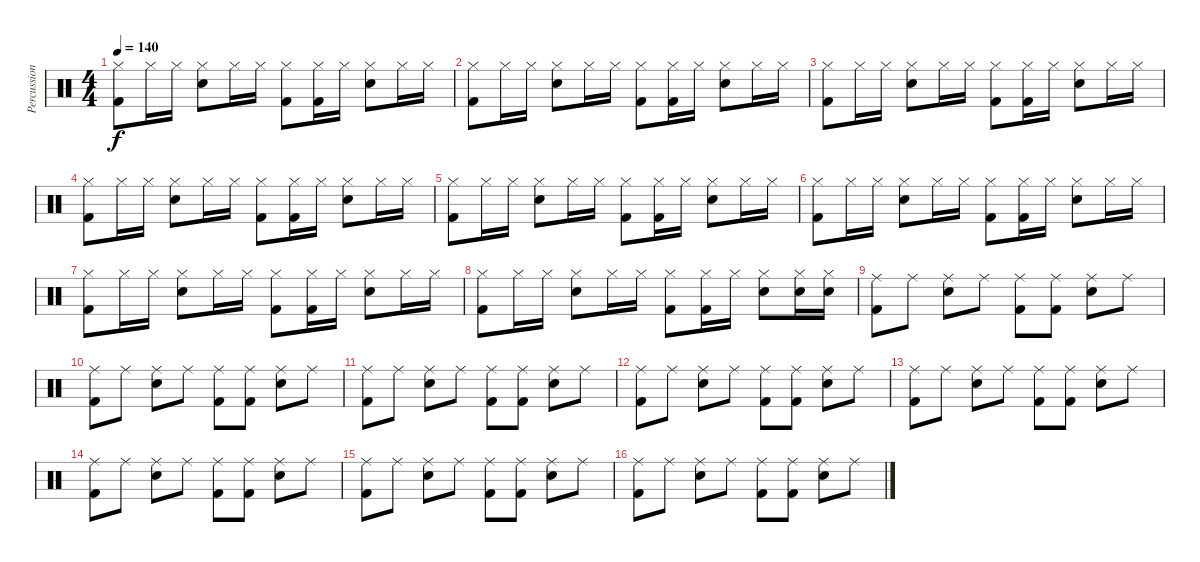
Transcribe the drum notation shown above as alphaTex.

\track ("Percussion" "Percussion") {instrument percussion}
\staff {score}
\articulation defaults
\ts (4 4)
\tempo 140
\clef neutral
\ks c
("Hi-Hat (closed)" "Kick (hit) 2").8{dy f} "Hi-Hat (closed)".16 "Hi-Hat (closed)".16 ("Hi-Hat (closed)" "Snare (hit) 2").8 "Hi-Hat (closed)".16 "Hi-Hat (closed)".16 ("Hi-Hat (closed)" "Kick (hit) 2").8 ("Hi-Hat (closed)" "Kick (hit) 2").16 "Hi-Hat (closed)".16 ("Hi-Hat (closed)" "Snare (hit) 2").8 "Hi-Hat (closed)".16 "Hi-Hat (closed)".16 |
("Hi-Hat (closed)" "Kick (hit) 2").8 "Hi-Hat (closed)".16 "Hi-Hat (closed)".16 ("Hi-Hat (closed)" "Snare (hit) 2").8 "Hi-Hat (closed)".16 "Hi-Hat (closed)".16 ("Hi-Hat (closed)" "Kick (hit) 2").8 ("Hi-Hat (closed)" "Kick (hit) 2").16 "Hi-Hat (closed)".16 ("Hi-Hat (closed)" "Snare (hit) 2").8 "Hi-Hat (closed)".16 "Hi-Hat (closed)".16 |
("Hi-Hat (closed)" "Kick (hit) 2").8 "Hi-Hat (closed)".16 "Hi-Hat (closed)".16 ("Hi-Hat (closed)" "Snare (hit) 2").8 "Hi-Hat (closed)".16 "Hi-Hat (closed)".16 ("Hi-Hat (closed)" "Kick (hit) 2").8 ("Hi-Hat (closed)" "Kick (hit) 2").16 "Hi-Hat (closed)".16 ("Hi-Hat (closed)" "Snare (hit) 2").8 "Hi-Hat (closed)".16 "Hi-Hat (closed)".16 |
("Hi-Hat (closed)" "Kick (hit) 2").8 "Hi-Hat (closed)".16 "Hi-Hat (closed)".16 ("Hi-Hat (closed)" "Snare (hit) 2").8 "Hi-Hat (closed)".16 "Hi-Hat (closed)".16 ("Hi-Hat (closed)" "Kick (hit) 2").8 ("Hi-Hat (closed)" "Kick (hit) 2").16 "Hi-Hat (closed)".16 ("Hi-Hat (closed)" "Snare (hit) 2").8 "Hi-Hat (closed)".16 "Hi-Hat (closed)".16 |
("Hi-Hat (closed)" "Kick (hit) 2").8 "Hi-Hat (closed)".16 "Hi-Hat (closed)".16 ("Hi-Hat (closed)" "Snare (hit) 2").8 "Hi-Hat (closed)".16 "Hi-Hat (closed)".16 ("Hi-Hat (closed)" "Kick (hit) 2").8 ("Hi-Hat (closed)" "Kick (hit) 2").16 "Hi-Hat (closed)".16 ("Hi-Hat (closed)" "Snare (hit) 2").8 "Hi-Hat (closed)".16 "Hi-Hat (closed)".16 |
("Hi-Hat (closed)" "Kick (hit) 2").8 "Hi-Hat (closed)".16 "Hi-Hat (closed)".16 ("Hi-Hat (closed)" "Snare (hit) 2").8 "Hi-Hat (closed)".16 "Hi-Hat (closed)".16 ("Hi-Hat (closed)" "Kick (hit) 2").8 ("Hi-Hat (closed)" "Kick (hit) 2").16 "Hi-Hat (closed)".16 ("Hi-Hat (closed)" "Snare (hit) 2").8 "Hi-Hat (closed)".16 "Hi-Hat (closed)".16 |
("Hi-Hat (closed)" "Kick (hit) 2").8 "Hi-Hat (closed)".16 "Hi-Hat (closed)".16 ("Hi-Hat (closed)" "Snare (hit) 2").8 "Hi-Hat (closed)".16 "Hi-Hat (closed)".16 ("Hi-Hat (closed)" "Kick (hit) 2").8 ("Hi-Hat (closed)" "Kick (hit) 2").16 "Hi-Hat (closed)".16 ("Hi-Hat (closed)" "Snare (hit) 2").8 "Hi-Hat (closed)".16 "Hi-Hat (closed)".16 |
("Hi-Hat (closed)" "Kick (hit) 2").8 "Hi-Hat (closed)".16 "Hi-Hat (closed)".16 ("Hi-Hat (closed)" "Snare (hit) 2").8 "Hi-Hat (closed)".16 "Hi-Hat (closed)".16 ("Hi-Hat (closed)" "Kick (hit) 2").8 ("Hi-Hat (closed)" "Kick (hit) 2").16 "Hi-Hat (closed)".16 ("Hi-Hat (closed)" "Snare (hit) 2").8 ("Hi-Hat (closed)" "Snare (hit) 2").16 ("Hi-Hat (closed)" "Snare (hit) 2").16 |
("Ride (middle)" "Kick (hit) 2").8 "Ride (middle)".8 ("Ride (middle)" "Snare (hit) 2").8 "Ride (middle)".8 ("Ride (middle)" "Kick (hit) 2").8 ("Ride (middle)" "Kick (hit) 2").8 ("Ride (middle)" "Snare (hit) 2").8 "Ride (middle)".8 |
("Ride (middle)" "Kick (hit) 2").8 "Ride (middle)".8 ("Ride (middle)" "Snare (hit) 2").8 "Ride (middle)".8 ("Ride (middle)" "Kick (hit) 2").8 ("Ride (middle)" "Kick (hit) 2").8 ("Ride (middle)" "Snare (hit) 2").8 "Ride (middle)".8 |
("Ride (middle)" "Kick (hit) 2").8 "Ride (middle)".8 ("Ride (middle)" "Snare (hit) 2").8 "Ride (middle)".8 ("Ride (middle)" "Kick (hit) 2").8 ("Ride (middle)" "Kick (hit) 2").8 ("Ride (middle)" "Snare (hit) 2").8 "Ride (middle)".8 |
("Ride (middle)" "Kick (hit) 2").8 "Ride (middle)".8 ("Ride (middle)" "Snare (hit) 2").8 "Ride (middle)".8 ("Ride (middle)" "Kick (hit) 2").8 ("Ride (middle)" "Kick (hit) 2").8 ("Ride (middle)" "Snare (hit) 2").8 "Ride (middle)".8 |
("Ride (middle)" "Kick (hit) 2").8 "Ride (middle)".8 ("Ride (middle)" "Snare (hit) 2").8 "Ride (middle)".8 ("Ride (middle)" "Kick (hit) 2").8 ("Ride (middle)" "Kick (hit) 2").8 ("Ride (middle)" "Snare (hit) 2").8 "Ride (middle)".8 |
("Ride (middle)" "Kick (hit) 2").8 "Ride (middle)".8 ("Ride (middle)" "Snare (hit) 2").8 "Ride (middle)".8 ("Ride (middle)" "Kick (hit) 2").8 ("Ride (middle)" "Kick (hit) 2").8 ("Ride (middle)" "Snare (hit) 2").8 "Ride (middle)".8 |
("Ride (middle)" "Kick (hit) 2").8 "Ride (middle)".8 ("Ride (middle)" "Snare (hit) 2").8 "Ride (middle)".8 ("Ride (middle)" "Kick (hit) 2").8 ("Ride (middle)" "Kick (hit) 2").8 ("Ride (middle)" "Snare (hit) 2").8 "Ride (middle)".8 |
("Ride (middle)" "Kick (hit) 2").8 "Ride (middle)".8 ("Ride (middle)" "Snare (hit) 2").8 "Ride (middle)".8 ("Ride (middle)" "Kick (hit) 2").8 ("Ride (middle)" "Kick (hit) 2").8 ("Ride (middle)" "Snare (hit) 2").8 "Ride (middle)".8
